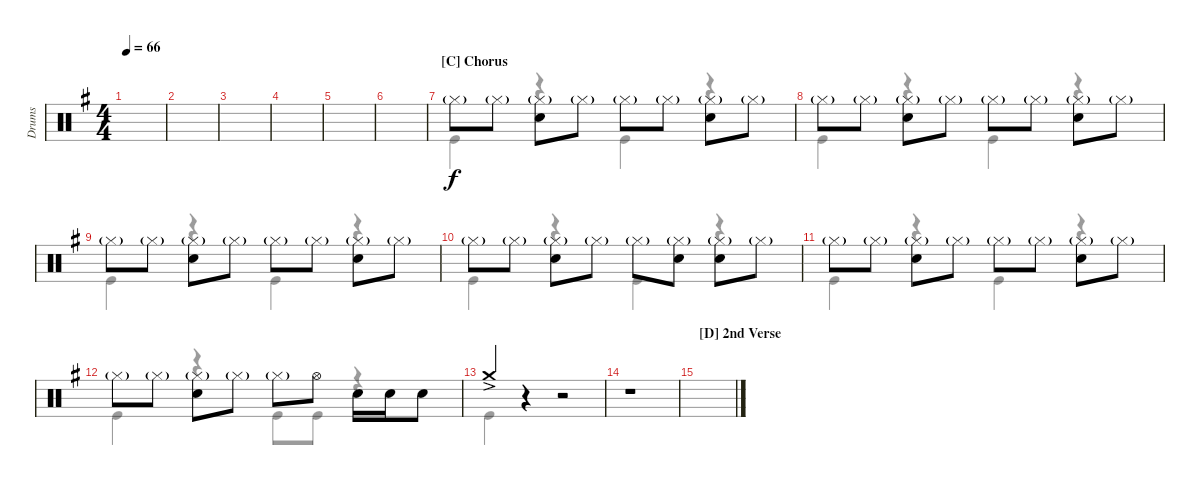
\defaultSystemsLayout 4
\bracketExtendMode groupsimilarinstruments
\otherSystemsTrackNameOrientation horizontal
\track ("Drumkit" "Drums") {instrument percussion}
\staff {score}
\articulation defaults
\voice
\ts (4 4)
\tempo 66
\clef neutral
\ks g
|
|
|
|
|
|
\section ("C" "Chorus")
"Hi-Hat (closed)"{g}.8{beam invert} "Hi-Hat (closed)"{g}.8 ("Hi-Hat (closed)"{g} "Snare (hit) 2").8{beam invert} "Hi-Hat (closed)"{g}.8 "Hi-Hat (closed)"{g}.8{beam invert} "Hi-Hat (closed)"{g}.8 ("Hi-Hat (closed)"{g} "Snare (hit) 2").8{beam invert} "Hi-Hat (closed)"{g}.8 |
"Hi-Hat (closed)"{g}.8{beam invert} "Hi-Hat (closed)"{g}.8 ("Hi-Hat (closed)"{g} "Snare (hit) 2").8{beam invert} "Hi-Hat (closed)"{g}.8 "Hi-Hat (closed)"{g}.8{beam invert} "Hi-Hat (closed)"{g}.8 ("Hi-Hat (closed)"{g} "Snare (hit) 2").8{beam invert} "Hi-Hat (closed)"{g}.8 |
"Hi-Hat (closed)"{g}.8{beam invert} "Hi-Hat (closed)"{g}.8 ("Hi-Hat (closed)"{g} "Snare (hit) 2").8{beam invert} "Hi-Hat (closed)"{g}.8 "Hi-Hat (closed)"{g}.8{beam invert} "Hi-Hat (closed)"{g}.8 ("Hi-Hat (closed)"{g} "Snare (hit) 2").8{beam invert} "Hi-Hat (closed)"{g}.8 |
"Hi-Hat (closed)"{g}.8{beam invert} "Hi-Hat (closed)"{g}.8 ("Hi-Hat (closed)"{g} "Snare (hit) 2").8{beam invert} "Hi-Hat (closed)"{g}.8 "Hi-Hat (closed)"{g}.8{beam invert} ("Hi-Hat (closed)"{g} "Snare (hit) 2").8 ("Hi-Hat (closed)"{g} "Snare (hit) 2").8{beam invert} "Hi-Hat (closed)"{g}.8 |
"Hi-Hat (closed)"{g}.8{beam invert} "Hi-Hat (closed)"{g}.8 ("Hi-Hat (closed)"{g} "Snare (hit) 2").8{beam invert} "Hi-Hat (closed)"{g}.8 "Hi-Hat (closed)"{g}.8{beam invert} "Hi-Hat (closed)"{g}.8 ("Hi-Hat (closed)"{g} "Snare (hit) 2").8{beam invert} "Hi-Hat (closed)"{g}.8 |
"Hi-Hat (closed)"{g}.8{beam invert} "Hi-Hat (closed)"{g}.8 ("Hi-Hat (closed)"{g} "Snare (hit) 2").8{beam invert} "Hi-Hat (closed)"{g}.8 "Hi-Hat (closed)"{g}.8{beam invert} "Hi-Hat (open)".8 "Snare (hit) 2".16{beam invert} "Snare (hit) 2".16 "Snare (hit) 2".8 |
"Crash medium (hit)"{ac}.4 r.4 r.2 |
r.1 |
\section ("D" "2nd Verse")
|
\voice
\clef neutral
\ottava regular
\simile none
\ks g
|
|
|
|
|
|
"Kick (hit)".4 r.4 "Kick (hit)".4 r.4 |
"Kick (hit)".4 r.4 "Kick (hit)".4 r.4 |
"Kick (hit)".4 r.4 "Kick (hit)".4 r.4 |
"Kick (hit)".4 r.4 "Kick (hit)".4 r.4 |
"Kick (hit)".4 r.4 "Kick (hit)".4 r.4 |
"Kick (hit)".4 r.4 "Kick (hit)".8 "Kick (hit)".8 r.4 |
"Kick (hit)".4 r.4 r.2 |
|
|
